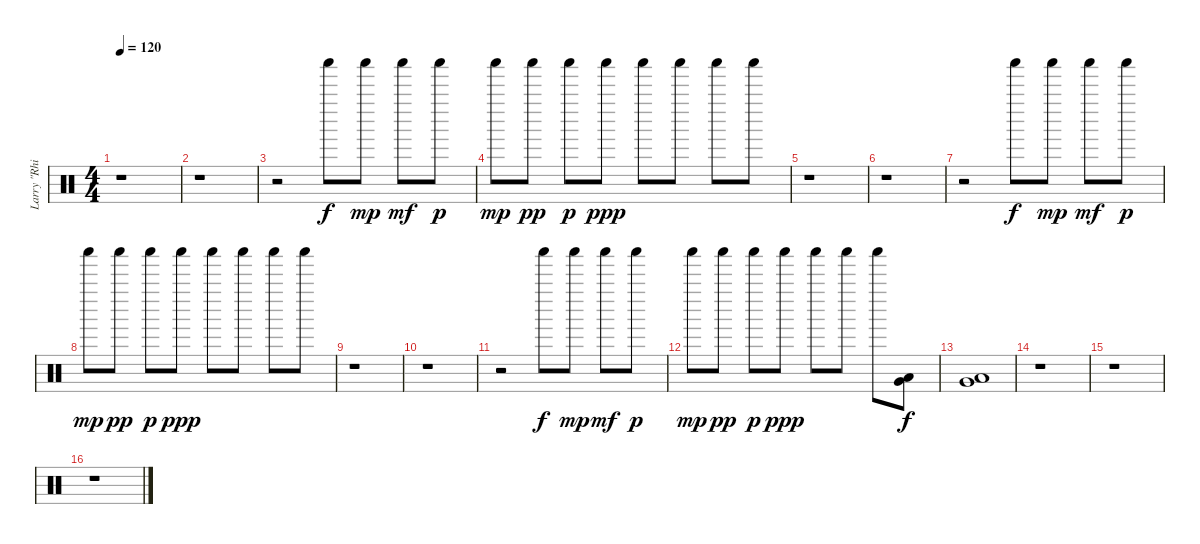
\track ("Larry \"Rhino\" Rheinhart" "Larry \"Rhi") {instrument percussion}
\staff {score}
\articulation defaults
\ts (4 4)
\tempo 120
\clef neutral
\ks c
r.1{dy ppp} |
r.1 |
r.2 "Shaker (hit)".8{dy f volume 13 balance 0} "Shaker (hit)".8{dy mp balance 16} "Shaker (hit)".8{dy mf balance 0} "Shaker (hit)".8{dy p balance 16} |
"Shaker (hit)".8{dy mp balance 0} "Shaker (hit)".8{dy pp balance 16} "Shaker (hit)".8{dy p balance 0} "Shaker (hit)".8{dy ppp balance 16} "Shaker (hit)".8{balance 0} "Shaker (hit)".8{balance 0} "Shaker (hit)".8{balance 0} "Shaker (hit)".8 |
r.1 |
r.1 |
r.2 "Shaker (hit)".8{dy f volume 13 balance 0} "Shaker (hit)".8{dy mp balance 16} "Shaker (hit)".8{dy mf balance 0} "Shaker (hit)".8{dy p balance 16} |
"Shaker (hit)".8{dy mp balance 0} "Shaker (hit)".8{dy pp balance 16} "Shaker (hit)".8{dy p balance 0} "Shaker (hit)".8{dy ppp balance 16} "Shaker (hit)".8{balance 0} "Shaker (hit)".8{balance 0} "Shaker (hit)".8{balance 0} "Shaker (hit)".8 |
r.1 |
r.1 |
r.2 "Shaker (hit)".8{dy f volume 13 balance 0} "Shaker (hit)".8{dy mp balance 16} "Shaker (hit)".8{dy mf balance 0} "Shaker (hit)".8{dy p balance 16} |
"Shaker (hit)".8{dy mp balance 0} "Shaker (hit)".8{dy pp balance 16} "Shaker (hit)".8{dy p balance 0} "Shaker (hit)".8{dy ppp balance 16} "Shaker (hit)".8{balance 0} "Shaker (hit)".8{balance 0} "Shaker (hit)".8{balance 0} ("Very Low Tom (hit)" "Low Floor Tom (hit)").8{dy f balance 12} |
("Very Low Tom (hit)" "Low Floor Tom (hit)").1 |
r.1 |
r.1 |
r.1
